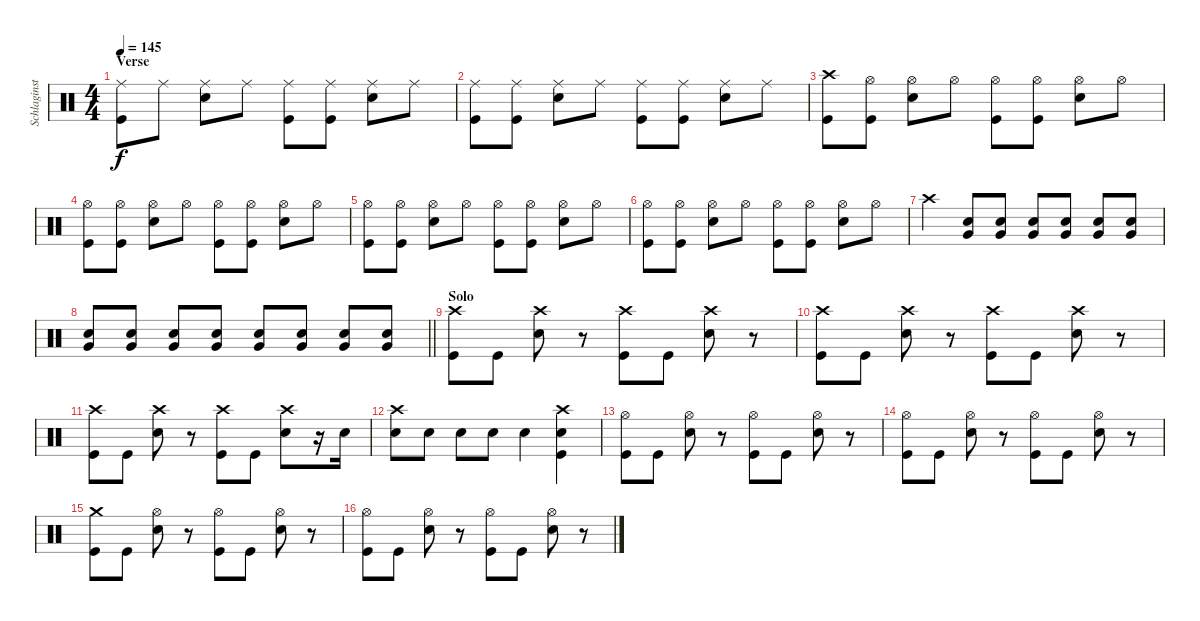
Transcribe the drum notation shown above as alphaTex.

\track ("Schlaginstrumente - Auswahl" "Schlaginst") {instrument percussion}
\staff {score}
\articulation defaults
\ts (4 4)
\section ("" "Verse")
\tempo 145
\clef neutral
\ks c
("Kick (hit)" "Ride (middle)").8{dy f} "Ride (middle)".8 ("Snare (hit) 2" "Ride (middle)").8 "Ride (middle)".8 ("Kick (hit)" "Ride (middle)").8 ("Ride (middle)" "Kick (hit)").8 ("Snare (hit) 2" "Ride (middle)").8 "Ride (middle)".8 |
("Kick (hit)" "Ride (middle)").8 ("Ride (middle)" "Kick (hit)").8 ("Snare (hit) 2" "Ride (middle)").8 "Ride (middle)".8 ("Kick (hit)" "Ride (middle)").8 ("Ride (middle)" "Kick (hit)").8 ("Snare (hit) 2" "Ride (middle)").8 "Ride (middle)".8 |
("Kick (hit)" "Crash high (hit)").8 ("Kick (hit)" "Hi-Hat (open)").8 ("Snare (hit) 2" "Hi-Hat (open)").8 "Hi-Hat (open)".8 ("Kick (hit)" "Hi-Hat (open)").8 ("Kick (hit)" "Hi-Hat (open)").8 ("Snare (hit) 2" "Hi-Hat (open)").8 "Hi-Hat (open)".8 |
("Kick (hit)" "Hi-Hat (open)").8 ("Kick (hit)" "Hi-Hat (open)").8 ("Snare (hit) 2" "Hi-Hat (open)").8 "Hi-Hat (open)".8 ("Kick (hit)" "Hi-Hat (open)").8 ("Kick (hit)" "Hi-Hat (open)").8 ("Snare (hit) 2" "Hi-Hat (open)").8 "Hi-Hat (open)".8 |
("Kick (hit)" "Hi-Hat (open)").8 ("Kick (hit)" "Hi-Hat (open)").8 ("Snare (hit) 2" "Hi-Hat (open)").8 "Hi-Hat (open)".8 ("Kick (hit)" "Hi-Hat (open)").8 ("Kick (hit)" "Hi-Hat (open)").8 ("Snare (hit) 2" "Hi-Hat (open)").8 "Hi-Hat (open)".8 |
("Kick (hit)" "Hi-Hat (open)").8 ("Kick (hit)" "Hi-Hat (open)").8 ("Snare (hit) 2" "Hi-Hat (open)").8 "Hi-Hat (open)".8 ("Kick (hit)" "Hi-Hat (open)").8 ("Kick (hit)" "Hi-Hat (open)").8 ("Snare (hit) 2" "Hi-Hat (open)").8 "Hi-Hat (open)".8 |
"Crash high (hit)".4 ("Very Low Tom (hit)" "Snare (hit) 2").8 ("Very Low Tom (hit)" "Snare (hit) 2").8 ("Very Low Tom (hit)" "Snare (hit) 2").8 ("Very Low Tom (hit)" "Snare (hit) 2").8 ("Very Low Tom (hit)" "Snare (hit) 2").8 ("Very Low Tom (hit)" "Snare (hit) 2").8 |
\barLineRight lightlight
("Very Low Tom (hit)" "Snare (hit) 2").8 ("Very Low Tom (hit)" "Snare (hit) 2").8 ("Very Low Tom (hit)" "Snare (hit) 2").8 ("Very Low Tom (hit)" "Snare (hit) 2").8 ("Very Low Tom (hit)" "Snare (hit) 2").8 ("Very Low Tom (hit)" "Snare (hit) 2").8 ("Very Low Tom (hit)" "Snare (hit) 2").8 ("Very Low Tom (hit)" "Snare (hit) 2").8 |
\section ("" "Solo")
("Crash high (hit)" "Kick (hit)").8 "Kick (hit)".8 ("Snare (hit) 2" "Crash high (hit)").8 r.8 ("Kick (hit)" "Crash high (hit)").8 "Kick (hit)".8 ("Snare (hit) 2" "Crash high (hit)").8 r.8 |
("Crash high (hit)" "Kick (hit)").8 "Kick (hit)".8 ("Snare (hit) 2" "Crash high (hit)").8 r.8 ("Kick (hit)" "Crash high (hit)").8 "Kick (hit)".8 ("Snare (hit) 2" "Crash high (hit)").8 r.8 |
("Crash high (hit)" "Kick (hit)").8 "Kick (hit)".8 ("Snare (hit) 2" "Crash high (hit)").8 r.8 ("Kick (hit)" "Crash high (hit)").8 "Kick (hit)".8 ("Snare (hit) 2" "Crash high (hit)").8 r.16 "Snare (hit) 2".16 |
("Snare (hit) 2" "Crash high (hit)").8 "Snare (hit) 2".8 "Snare (hit) 2".8 "Snare (hit) 2".8 "Snare (hit) 2".4 ("Kick (hit)" "Crash high (hit)" "Snare (hit) 2").4 |
("Hi-Hat (open)" "Kick (hit)").8 "Kick (hit)".8 ("Snare (hit) 2" "Hi-Hat (open)").8 r.8 ("Kick (hit)" "Hi-Hat (open)").8 "Kick (hit)".8 ("Snare (hit) 2" "Hi-Hat (open)").8 r.8 |
("Hi-Hat (open)" "Kick (hit)").8 "Kick (hit)".8 ("Snare (hit) 2" "Hi-Hat (open)").8 r.8 ("Kick (hit)" "Hi-Hat (open)").8 "Kick (hit)".8 ("Snare (hit) 2" "Hi-Hat (open)").8 r.8 |
("Crash medium (hit)" "Kick (hit)").8 "Kick (hit)".8 ("Snare (hit) 2" "Hi-Hat (open)").8 r.8 ("Kick (hit)" "Hi-Hat (open)").8 "Kick (hit)".8 ("Snare (hit) 2" "Hi-Hat (open)").8 r.8 |
("Hi-Hat (open)" "Kick (hit)").8 "Kick (hit)".8 ("Snare (hit) 2" "Hi-Hat (open)").8 r.8 ("Kick (hit)" "Hi-Hat (open)").8 "Kick (hit)".8 ("Snare (hit) 2" "Hi-Hat (open)").8 r.8
